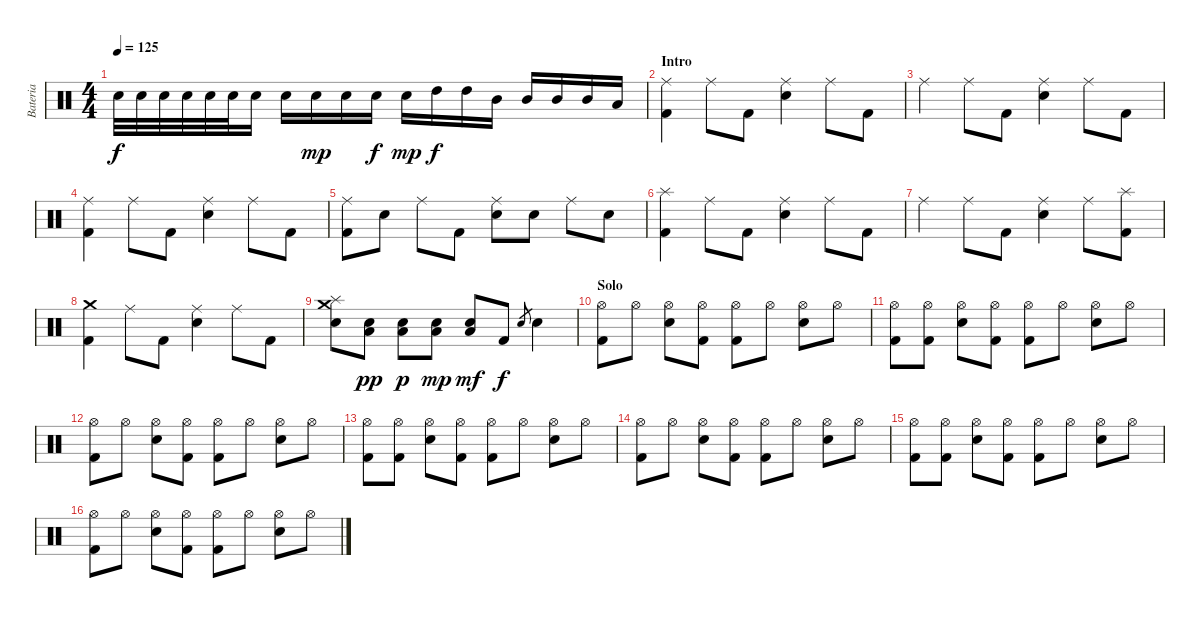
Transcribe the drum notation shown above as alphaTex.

\track ("Bateria" "Bateria") {instrument percussion}
\staff {score}
\articulation defaults
\ts (4 4)
\tempo 125
\clef neutral
\ks c "Electric Snare (hit)".32{dy f} "Electric Snare (hit)".32 "Electric Snare (hit)".32 "Electric Snare (hit)".32 "Electric Snare (hit)".32 "Electric Snare (hit)".32 "Electric Snare (hit)".16 "Electric Snare (hit)".16 "Electric Snare (hit)".16{dy mp} "Electric Snare (hit)".16 "Electric Snare (hit)".16{dy f} "Electric Snare (hit)".16{dy mp} "High Tom (hit)".16{dy f} "High Tom (hit)".16 "Mid Tom (hit)".16 "Mid Tom (hit)".16 "Mid Tom (hit)".16 "Mid Tom (hit)".16 "Low Floor Tom (hit)".16
|
\section ("" "Intro")
("Ride (middle)" "Kick (hit) 2").4 "Ride (middle)".8 "Kick (hit) 2".8 ("Ride (middle)" "Electric Snare (hit)").4 "Ride (middle)".8 "Kick (hit) 2".8 |
"Ride (middle)".4 "Ride (middle)".8 "Kick (hit) 2".8 ("Ride (middle)" "Electric Snare (hit)").4 "Ride (middle)".8 "Kick (hit) 2".8 |
("Ride (middle)" "Kick (hit) 2").4 "Ride (middle)".8 "Kick (hit) 2".8 ("Ride (middle)" "Electric Snare (hit)").4 "Ride (middle)".8 "Kick (hit) 2".8 |
("Ride (middle)" "Kick (hit) 2").8 "Electric Snare (hit)".8 "Ride (middle)".8 "Kick (hit) 2".8 ("Ride (middle)" "Electric Snare (hit)").8 "Electric Snare (hit)".8 "Ride (middle)".8 "Electric Snare (hit)".8 |
("Splash (hit)" "Kick (hit) 2").4 "Ride (middle)".8 "Kick (hit) 2".8 ("Ride (middle)" "Electric Snare (hit)").4 "Ride (middle)".8 "Kick (hit) 2".8 |
"Ride (middle)".4 "Ride (middle)".8 "Kick (hit) 2".8 ("Ride (middle)" "Electric Snare (hit)").4 "Ride (middle)".8 ("Splash (hit)" "Kick (hit) 2").8 |
("Crash medium (hit)" "Kick (hit) 2").4 "Ride (middle)".8 "Kick (hit) 2".8 ("Ride (middle)" "Electric Snare (hit)").4 "Ride (middle)".8 "Kick (hit) 2".8 |
("Electric Snare (hit)" "Splash (hit)" "Crash medium (hit)").8 ("Electric Snare (hit)" "Low Floor Tom (hit)").8{dy pp} ("Electric Snare (hit)" "Low Floor Tom (hit)").8{dy p} ("Electric Snare (hit)" "Low Floor Tom (hit)").8{dy mp} ("Electric Snare (hit)" "Low Floor Tom (hit)").8{dy mf} "Kick (hit) 2".8{dy f} "Electric Snare (hit)".8{gr} "Electric Snare (hit)".4 |
\section ("" "Solo")
("Hi-Hat (open)" "Kick (hit) 2").8 "Hi-Hat (open)".8 ("Hi-Hat (open)" "Electric Snare (hit)").8 ("Hi-Hat (open)" "Kick (hit) 2").8 ("Hi-Hat (open)" "Kick (hit) 2").8 "Hi-Hat (open)".8 ("Hi-Hat (open)" "Electric Snare (hit)").8 "Hi-Hat (open)".8 |
("Hi-Hat (open)" "Kick (hit) 2").8 ("Hi-Hat (open)" "Kick (hit) 2").8 ("Hi-Hat (open)" "Electric Snare (hit)").8 ("Hi-Hat (open)" "Kick (hit) 2").8 ("Hi-Hat (open)" "Kick (hit) 2").8 "Hi-Hat (open)".8 ("Hi-Hat (open)" "Electric Snare (hit)").8 "Hi-Hat (open)".8 |
("Hi-Hat (open)" "Kick (hit) 2").8 "Hi-Hat (open)".8 ("Hi-Hat (open)" "Electric Snare (hit)").8 ("Hi-Hat (open)" "Kick (hit) 2").8 ("Hi-Hat (open)" "Kick (hit) 2").8 "Hi-Hat (open)".8 ("Hi-Hat (open)" "Electric Snare (hit)").8 "Hi-Hat (open)".8 |
("Hi-Hat (open)" "Kick (hit) 2").8 ("Hi-Hat (open)" "Kick (hit) 2").8 ("Hi-Hat (open)" "Electric Snare (hit)").8 ("Hi-Hat (open)" "Kick (hit) 2").8 ("Hi-Hat (open)" "Kick (hit) 2").8 "Hi-Hat (open)".8 ("Hi-Hat (open)" "Electric Snare (hit)").8 "Hi-Hat (open)".8 |
("Hi-Hat (open)" "Kick (hit) 2").8 "Hi-Hat (open)".8 ("Hi-Hat (open)" "Electric Snare (hit)").8 ("Hi-Hat (open)" "Kick (hit) 2").8 ("Hi-Hat (open)" "Kick (hit) 2").8 "Hi-Hat (open)".8 ("Hi-Hat (open)" "Electric Snare (hit)").8 "Hi-Hat (open)".8 |
("Hi-Hat (open)" "Kick (hit) 2").8 ("Hi-Hat (open)" "Kick (hit) 2").8 ("Hi-Hat (open)" "Electric Snare (hit)").8 ("Hi-Hat (open)" "Kick (hit) 2").8 ("Hi-Hat (open)" "Kick (hit) 2").8 "Hi-Hat (open)".8 ("Hi-Hat (open)" "Electric Snare (hit)").8 "Hi-Hat (open)".8 |
("Hi-Hat (open)" "Kick (hit) 2").8 "Hi-Hat (open)".8 ("Hi-Hat (open)" "Electric Snare (hit)").8 ("Hi-Hat (open)" "Kick (hit) 2").8 ("Hi-Hat (open)" "Kick (hit) 2").8 "Hi-Hat (open)".8 ("Hi-Hat (open)" "Electric Snare (hit)").8 "Hi-Hat (open)".8
